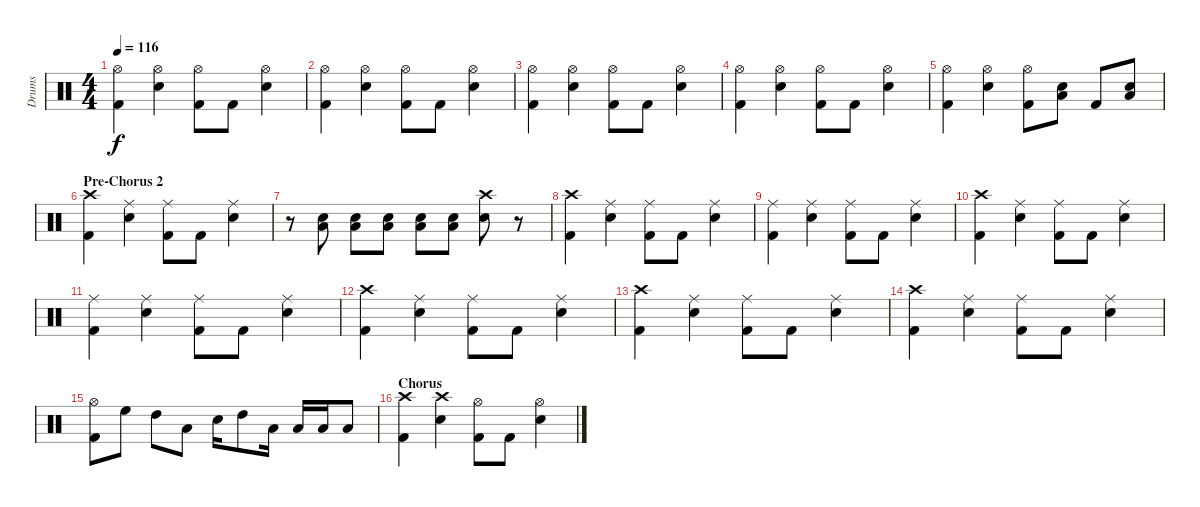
\track ("Drums" "Drums") {instrument percussion}
\staff {score}
\articulation defaults
\ts (4 4)
\tempo 116
\clef neutral
\ks c
("Hi-Hat (open)" "Kick (hit) 2").4{dy f} ("Hi-Hat (open)" "Electric Snare (hit)").4 ("Hi-Hat (open)" "Kick (hit) 2").8 "Kick (hit) 2".8 ("Hi-Hat (open)" "Electric Snare (hit)").4 |
("Hi-Hat (open)" "Kick (hit) 2").4 ("Hi-Hat (open)" "Electric Snare (hit)").4 ("Hi-Hat (open)" "Kick (hit) 2").8 "Kick (hit) 2".8 ("Hi-Hat (open)" "Electric Snare (hit)").4 |
("Hi-Hat (open)" "Kick (hit) 2").4 ("Hi-Hat (open)" "Electric Snare (hit)").4 ("Hi-Hat (open)" "Kick (hit) 2").8 "Kick (hit) 2".8 ("Hi-Hat (open)" "Electric Snare (hit)").4 |
("Hi-Hat (open)" "Kick (hit) 2").4 ("Hi-Hat (open)" "Electric Snare (hit)").4 ("Hi-Hat (open)" "Kick (hit) 2").8 "Kick (hit) 2".8 ("Hi-Hat (open)" "Electric Snare (hit)").4 |
("Hi-Hat (open)" "Kick (hit) 2").4 ("Hi-Hat (open)" "Electric Snare (hit)").4 ("Hi-Hat (open)" "Kick (hit) 2").8 ("Electric Snare (hit)" "Low Floor Tom (hit)").8 "Kick (hit) 2".8 ("Electric Snare (hit)" "Low Floor Tom (hit)").8 |
\section ("" "Pre-Chorus 2")
("Crash high (hit)" "Kick (hit) 2").4 ("Ride (middle)" "Electric Snare (hit)").4 ("Ride (middle)" "Kick (hit) 2").8 "Kick (hit) 2".8 ("Ride (middle)" "Electric Snare (hit)").4 |
r.8 ("Electric Snare (hit)" "Low Floor Tom (hit)").8 ("Electric Snare (hit)" "Low Floor Tom (hit)").8 ("Electric Snare (hit)" "Low Floor Tom (hit)").8 ("Electric Snare (hit)" "Low Floor Tom (hit)").8 ("Electric Snare (hit)" "Low Floor Tom (hit)").8 ("Crash high (hit)" "Electric Snare (hit)").8 r.8 |
("Crash high (hit)" "Kick (hit) 2").4 ("Ride (middle)" "Electric Snare (hit)").4 ("Ride (middle)" "Kick (hit) 2").8 "Kick (hit) 2".8 ("Ride (middle)" "Electric Snare (hit)").4 |
("Ride (middle)" "Kick (hit) 2").4 ("Ride (middle)" "Electric Snare (hit)").4 ("Ride (middle)" "Kick (hit) 2").8 "Kick (hit) 2".8 ("Ride (middle)" "Electric Snare (hit)").4 |
("Crash high (hit)" "Kick (hit) 2").4 ("Ride (middle)" "Electric Snare (hit)").4 ("Ride (middle)" "Kick (hit) 2").8 "Kick (hit) 2".8 ("Ride (middle)" "Electric Snare (hit)").4 |
("Ride (middle)" "Kick (hit) 2").4 ("Ride (middle)" "Electric Snare (hit)").4 ("Ride (middle)" "Kick (hit) 2").8 "Kick (hit) 2".8 ("Ride (middle)" "Electric Snare (hit)").4 |
("Crash high (hit)" "Kick (hit) 2").4 ("Ride (middle)" "Electric Snare (hit)").4 ("Ride (middle)" "Kick (hit) 2").8 "Kick (hit) 2".8 ("Ride (middle)" "Electric Snare (hit)").4 |
("Crash high (hit)" "Kick (hit) 2").4 ("Ride (middle)" "Electric Snare (hit)").4 ("Ride (middle)" "Kick (hit) 2").8 "Kick (hit) 2".8 ("Ride (middle)" "Electric Snare (hit)").4 |
("Crash high (hit)" "Kick (hit) 2").4 ("Ride (middle)" "Electric Snare (hit)").4 ("Ride (middle)" "Kick (hit) 2").8 "Kick (hit) 2".8 ("Ride (middle)" "Electric Snare (hit)").4 |
("Hi-Hat (open)" "Kick (hit) 2").8 "High Floor Tom (hit)".8 "High Tom (hit)".8 "Low Tom (hit)".8 "Electric Snare (hit)".16 "High Tom (hit)".8 "Low Tom (hit)".16 "Low Tom (hit)".16 "Low Floor Tom (hit)".16 "Low Floor Tom (hit)".8 |
\section ("" "Chorus")
("Crash high (hit)" "Kick (hit) 2").4 ("Crash high (hit)" "Electric Snare (hit)").4 ("Hi-Hat (open)" "Kick (hit) 2").8 "Kick (hit) 2".8 ("Hi-Hat (open)" "Electric Snare (hit)").4
